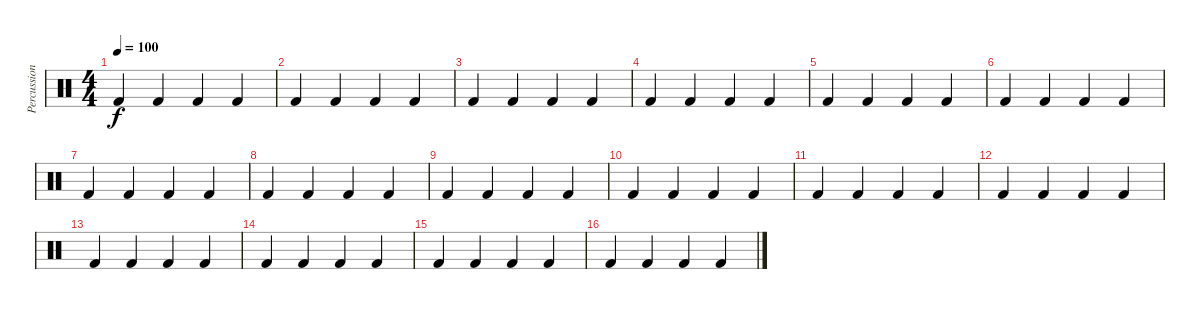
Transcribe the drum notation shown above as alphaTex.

\track ("Percussion" "Percussion") {instrument percussion}
\staff {score}
\articulation defaults
\ts (4 4)
\tempo 100
\clef neutral
\ks c "Kick (hit) 2".4{dy f} "Kick (hit) 2".4 "Kick (hit) 2".4 "Kick (hit) 2".4
|
"Kick (hit) 2".4 "Kick (hit) 2".4 "Kick (hit) 2".4 "Kick (hit) 2".4 |
"Kick (hit) 2".4 "Kick (hit) 2".4 "Kick (hit) 2".4 "Kick (hit) 2".4 |
"Kick (hit) 2".4 "Kick (hit) 2".4 "Kick (hit) 2".4 "Kick (hit) 2".4 |
"Kick (hit) 2".4 "Kick (hit) 2".4 "Kick (hit) 2".4 "Kick (hit) 2".4 |
"Kick (hit) 2".4 "Kick (hit) 2".4 "Kick (hit) 2".4 "Kick (hit) 2".4 |
"Kick (hit) 2".4 "Kick (hit) 2".4 "Kick (hit) 2".4 "Kick (hit) 2".4 |
"Kick (hit) 2".4 "Kick (hit) 2".4 "Kick (hit) 2".4 "Kick (hit) 2".4 |
"Kick (hit) 2".4 "Kick (hit) 2".4 "Kick (hit) 2".4 "Kick (hit) 2".4 |
"Kick (hit) 2".4 "Kick (hit) 2".4 "Kick (hit) 2".4 "Kick (hit) 2".4 |
"Kick (hit) 2".4 "Kick (hit) 2".4 "Kick (hit) 2".4 "Kick (hit) 2".4 |
"Kick (hit) 2".4 "Kick (hit) 2".4 "Kick (hit) 2".4 "Kick (hit) 2".4 |
"Kick (hit) 2".4 "Kick (hit) 2".4 "Kick (hit) 2".4 "Kick (hit) 2".4 |
"Kick (hit) 2".4 "Kick (hit) 2".4 "Kick (hit) 2".4 "Kick (hit) 2".4 |
"Kick (hit) 2".4 "Kick (hit) 2".4 "Kick (hit) 2".4 "Kick (hit) 2".4 |
"Kick (hit) 2".4 "Kick (hit) 2".4 "Kick (hit) 2".4 "Kick (hit) 2".4
